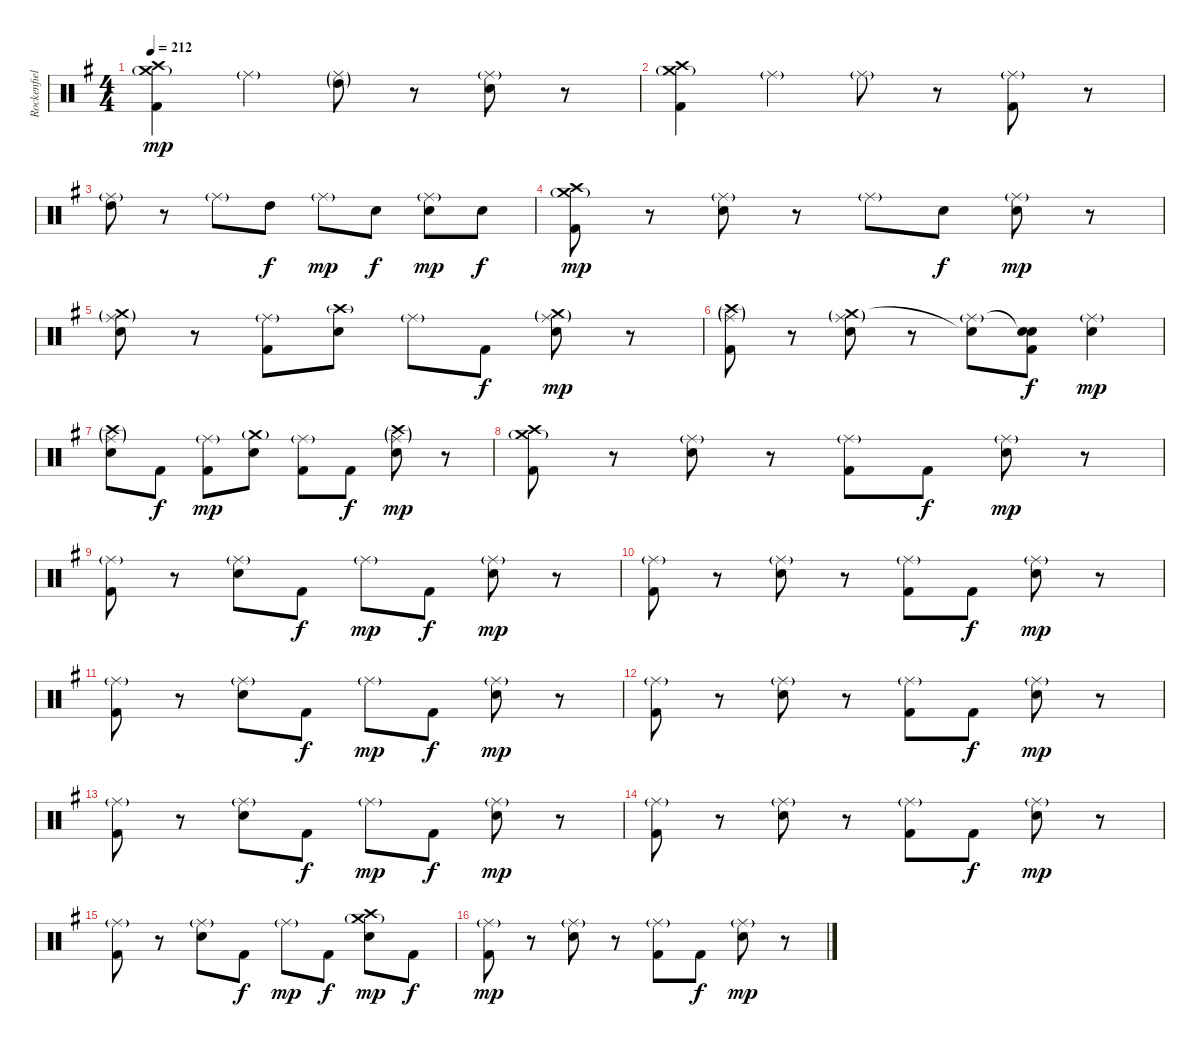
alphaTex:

\track ("Rockenfield" "Rockenfiel") {instrument percussion}
\staff {score}
\articulation defaults
\ts (4 4)
\tempo 212
\clef neutral
\ks g
("Crash medium (hit)"{g} "Crash high (hit)" "Kick (hit) 2").4{dy mp} "Ride (middle)"{g}.4 ("Ride (middle)"{g} "High Tom (hit)"{g}).8 r.8 ("Ride (middle)"{g} "Electric Snare (hit)").8 r.8 |
("Crash medium (hit)"{g} "Crash high (hit)" "Kick (hit) 2").4 "Ride (middle)"{g}.4 "Ride (middle)"{g}.8 r.8 ("Ride (middle)"{g} "Kick (hit) 2").8 r.8 |
("Ride (middle)"{g} "High Tom (hit)").8 r.8 "Ride (middle)"{g}.8 "High Tom (hit)".8{dy f} "Ride (middle)"{g}.8{dy mp} "Electric Snare (hit)".8{dy f} ("Ride (middle)"{g} "Electric Snare (hit)").8{dy mp} "Electric Snare (hit)".8{dy f} |
("Crash high (hit)" "Crash medium (hit)"{g} "Kick (hit) 2").8{dy mp} r.8 ("Ride (middle)"{g} "Electric Snare (hit)").8 r.8 "Ride (middle)"{g}.8 "Electric Snare (hit)".8{dy f} ("Ride (middle)"{g} "Electric Snare (hit)").8{dy mp} r.8 |
("Ride (middle)"{g} "Crash medium (hit)"{g} "Electric Snare (hit)").8 r.8 ("Ride (middle)"{g} "Kick (hit) 2").8 ("Crash high (hit)"{g} "Electric Snare (hit)").8 "Ride (middle)"{g}.8 "Kick (hit) 2".8{dy f} ("Ride (middle)"{g} "Crash medium (hit)"{g} "Electric Snare (hit)").8{dy mp} r.8 |
("Ride (middle)"{g} "Crash high (hit)"{g} "Kick (hit) 2").8 r.8 ("Ride (middle)"{g} "Crash medium (hit)"{g} "Electric Snare (hit)").8 r.8 ("Ride (middle)"{g} "Snare (hit)"{t}).8 ("Snare (hit)"{t} "Electric Snare (hit)" "Kick (hit) 2").8{dy f} ("Ride (middle)"{g} "Electric Snare (hit)").4{dy mp} |
("Ride (middle)"{g} "Crash high (hit)"{g} "Electric Snare (hit)").8 "Kick (hit) 2".8{dy f} ("Ride (middle)"{g} "Kick (hit) 2").8{dy mp} ("Crash medium (hit)"{g} "Electric Snare (hit)").8 ("Ride (middle)"{g} "Kick (hit) 2").8 "Kick (hit) 2".8{dy f} ("Ride (middle)"{g} "Crash high (hit)"{g} "Electric Snare (hit)").8{dy mp} r.8 |
("Crash high (hit)" "Crash medium (hit)"{g} "Kick (hit) 2").8 r.8 ("Ride (middle)"{g} "Electric Snare (hit)").8 r.8 ("Ride (middle)"{g} "Kick (hit) 2").8 "Kick (hit) 2".8{dy f} ("Ride (middle)"{g} "Electric Snare (hit)").8{dy mp} r.8 |
("Ride (middle)"{g} "Kick (hit) 2").8 r.8 ("Ride (middle)"{g} "Electric Snare (hit)").8 "Kick (hit) 2".8{dy f} "Ride (middle)"{g}.8{dy mp} "Kick (hit) 2".8{dy f} ("Ride (middle)"{g} "Electric Snare (hit)").8{dy mp} r.8 |
("Ride (middle)"{g} "Kick (hit) 2").8 r.8 ("Ride (middle)"{g} "Electric Snare (hit)").8 r.8 ("Ride (middle)"{g} "Kick (hit) 2").8 "Kick (hit) 2".8{dy f} ("Ride (middle)"{g} "Electric Snare (hit)").8{dy mp} r.8 |
("Ride (middle)"{g} "Kick (hit) 2").8 r.8 ("Ride (middle)"{g} "Electric Snare (hit)").8 "Kick (hit) 2".8{dy f} "Ride (middle)"{g}.8{dy mp} "Kick (hit) 2".8{dy f} ("Ride (middle)"{g} "Electric Snare (hit)").8{dy mp} r.8 |
("Ride (middle)"{g} "Kick (hit) 2").8 r.8 ("Ride (middle)"{g} "Electric Snare (hit)").8 r.8 ("Ride (middle)"{g} "Kick (hit) 2").8 "Kick (hit) 2".8{dy f} ("Ride (middle)"{g} "Electric Snare (hit)").8{dy mp} r.8 |
("Ride (middle)"{g} "Kick (hit) 2").8 r.8 ("Ride (middle)"{g} "Electric Snare (hit)").8 "Kick (hit) 2".8{dy f} "Ride (middle)"{g}.8{dy mp} "Kick (hit) 2".8{dy f} ("Ride (middle)"{g} "Electric Snare (hit)").8{dy mp} r.8 |
("Ride (middle)"{g} "Kick (hit) 2").8 r.8 ("Ride (middle)"{g} "Electric Snare (hit)").8 r.8 ("Ride (middle)"{g} "Kick (hit) 2").8 "Kick (hit) 2".8{dy f} ("Ride (middle)"{g} "Electric Snare (hit)").8{dy mp} r.8 |
("Ride (middle)"{g} "Kick (hit) 2").8 r.8 ("Ride (middle)"{g} "Electric Snare (hit)").8 "Kick (hit) 2".8{dy f} "Ride (middle)"{g}.8{dy mp} "Kick (hit) 2".8{dy f} ("Crash medium (hit)"{g} "Crash high (hit)" "Electric Snare (hit)").8{dy mp} "Kick (hit) 2".8{dy f} |
("Ride (middle)"{g} "Kick (hit) 2").8{dy mp} r.8 ("Ride (middle)"{g} "Electric Snare (hit)").8 r.8 ("Ride (middle)"{g} "Kick (hit) 2").8 "Kick (hit) 2".8{dy f} ("Ride (middle)"{g} "Electric Snare (hit)").8{dy mp} r.8
